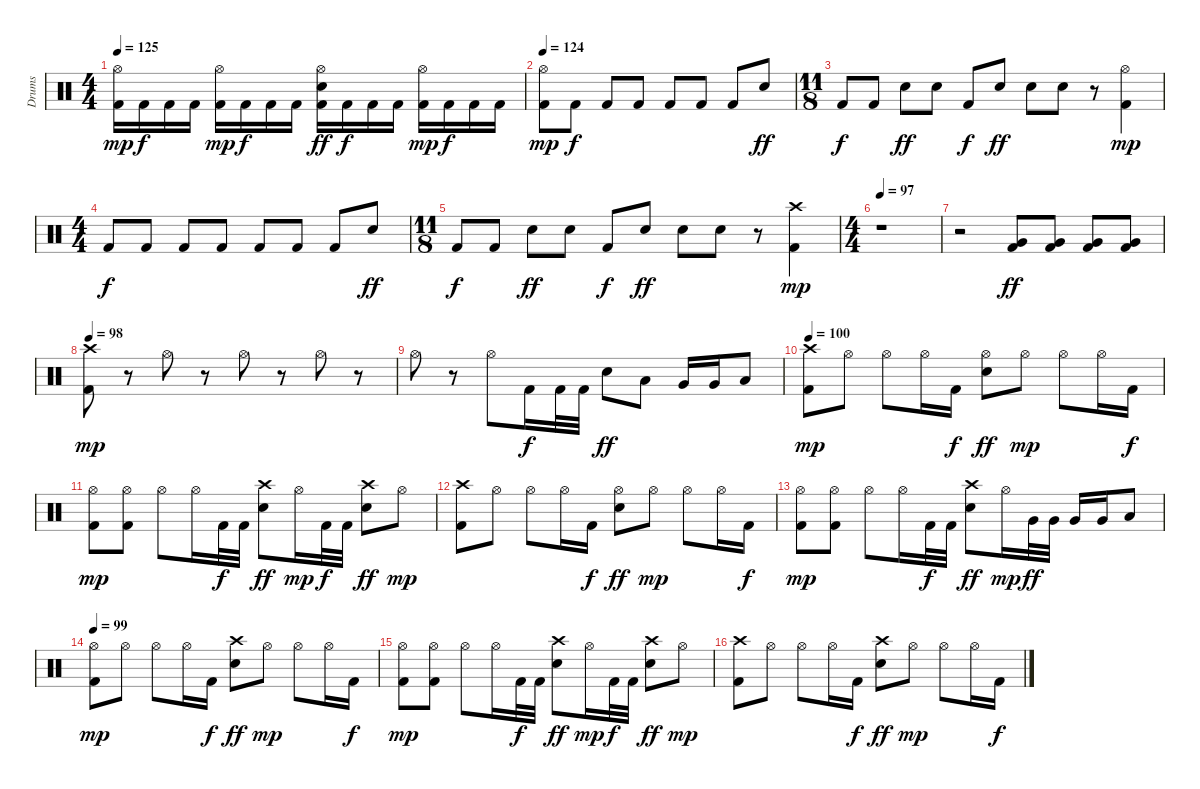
\track ("Drums" "Drums") {instrument percussion}
\staff {score}
\articulation defaults
\ts (4 4)
\tempo 125
\clef neutral
\ks c
("Hi-Hat (open)" "Kick (hit) 2").16{dy mp} "Kick (hit) 2".16{dy f} "Kick (hit) 2".16 "Kick (hit) 2".16 ("Hi-Hat (open)" "Kick (hit) 2").16{dy mp} "Kick (hit) 2".16{dy f} "Kick (hit) 2".16 "Kick (hit) 2".16 ("Hi-Hat (open)" "Electric Snare (hit)" "Kick (hit) 2").16{dy ff} "Kick (hit) 2".16{dy f} "Kick (hit) 2".16 "Kick (hit) 2".16 ("Hi-Hat (open)" "Kick (hit) 2").16{dy mp} "Kick (hit) 2".16{dy f} "Kick (hit) 2".16 "Kick (hit) 2".16 |
\tempo 124
("Hi-Hat (open)" "Kick (hit) 2").8{dy mp} "Kick (hit) 2".8{dy f} "Kick (hit) 2".8 "Kick (hit) 2".8 "Kick (hit) 2".8 "Kick (hit) 2".8 "Kick (hit) 2".8 "Electric Snare (hit)".8{dy ff} |
\ts (11 8)
"Kick (hit) 2".8{dy f} "Kick (hit) 2".8 "Electric Snare (hit)".8{dy ff} "Electric Snare (hit)".8 "Kick (hit) 2".8{dy f} "Electric Snare (hit)".8{dy ff} "Electric Snare (hit)".8 "Electric Snare (hit)".8 r.8 ("Hi-Hat (open)" "Kick (hit) 2").4{dy mp} |
\ts (4 4)
"Kick (hit) 2".8{dy f} "Kick (hit) 2".8 "Kick (hit) 2".8 "Kick (hit) 2".8 "Kick (hit) 2".8 "Kick (hit) 2".8 "Kick (hit) 2".8 "Electric Snare (hit)".8{dy ff} |
\ts (11 8)
"Kick (hit) 2".8{dy f} "Kick (hit) 2".8 "Electric Snare (hit)".8{dy ff} "Electric Snare (hit)".8 "Kick (hit) 2".8{dy f} "Electric Snare (hit)".8{dy ff} "Electric Snare (hit)".8 "Electric Snare (hit)".8 r.8 ("Crash high (hit)" "Kick (hit) 2").4{dy mp} |
\ts (4 4)
\tempo 97
r.1 |
r.2 ("Very Low Tom (hit)" "Kick (hit) 2").8{dy ff} ("Very Low Tom (hit)" "Kick (hit) 2").8 ("Very Low Tom (hit)" "Kick (hit) 2").8 ("Very Low Tom (hit)" "Kick (hit) 2").8 |
\tempo 98
("Crash high (hit)" "Kick (hit) 2").8{dy mp} r.8 "Hi-Hat (open)".8 r.8 "Hi-Hat (open)".8 r.8 "Hi-Hat (open)".8 r.8 |
"Hi-Hat (open)".8 r.8 "Hi-Hat (open)".8 "Kick (hit) 2".16{dy f} "Kick (hit) 2".32 "Kick (hit) 2".32 "Electric Snare (hit)".8{dy ff} "Low Tom (hit)".8 "Very Low Tom (hit)".16 "Very Low Tom (hit)".16 "Low Floor Tom (hit)".8 |
\tempo 100
("Crash high (hit)" "Kick (hit) 2").8{dy mp} "Hi-Hat (open)".8 "Hi-Hat (open)".8 "Hi-Hat (open)".16 "Kick (hit) 2".16{dy f} ("Hi-Hat (open)" "Electric Snare (hit)").8{dy ff} "Hi-Hat (open)".8{dy mp} "Hi-Hat (open)".8 "Hi-Hat (open)".16 "Kick (hit) 2".16{dy f} |
("Hi-Hat (open)" "Kick (hit) 2").8{dy mp} ("Hi-Hat (open)" "Kick (hit) 2").8 "Hi-Hat (open)".8 "Hi-Hat (open)".16 "Kick (hit) 2".32{dy f} "Kick (hit) 2".32 ("Crash high (hit)" "Electric Snare (hit)").8{dy ff} "Hi-Hat (open)".16{dy mp} "Kick (hit) 2".32{dy f} "Kick (hit) 2".32 ("Crash high (hit)" "Electric Snare (hit)").8{dy ff} "Hi-Hat (open)".8{dy mp} |
("Crash high (hit)" "Kick (hit) 2").8 "Hi-Hat (open)".8 "Hi-Hat (open)".8 "Hi-Hat (open)".16 "Kick (hit) 2".16{dy f} ("Hi-Hat (open)" "Electric Snare (hit)").8{dy ff} "Hi-Hat (open)".8{dy mp} "Hi-Hat (open)".8 "Hi-Hat (open)".16 "Kick (hit) 2".16{dy f} |
("Hi-Hat (open)" "Kick (hit) 2").8{dy mp} ("Hi-Hat (open)" "Kick (hit) 2").8 "Hi-Hat (open)".8 "Hi-Hat (open)".16 "Kick (hit) 2".32{dy f} "Kick (hit) 2".32 ("Crash high (hit)" "Electric Snare (hit)").8{dy ff} "Hi-Hat (open)".16{dy mp} "Very Low Tom (hit)".32{dy ff} "Very Low Tom (hit)".32 "Very Low Tom (hit)".16 "Very Low Tom (hit)".16 "Low Floor Tom (hit)".8 |
\tempo 99
("Hi-Hat (open)" "Kick (hit) 2").8{dy mp} "Hi-Hat (open)".8 "Hi-Hat (open)".8 "Hi-Hat (open)".16 "Kick (hit) 2".16{dy f} ("Crash high (hit)" "Electric Snare (hit)").8{dy ff} "Hi-Hat (open)".8{dy mp} "Hi-Hat (open)".8 "Hi-Hat (open)".16 "Kick (hit) 2".16{dy f} |
("Hi-Hat (open)" "Kick (hit) 2").8{dy mp} ("Hi-Hat (open)" "Kick (hit) 2").8 "Hi-Hat (open)".8 "Hi-Hat (open)".16 "Kick (hit) 2".32{dy f} "Kick (hit) 2".32 ("Crash high (hit)" "Electric Snare (hit)").8{dy ff} "Hi-Hat (open)".16{dy mp} "Kick (hit) 2".32{dy f} "Kick (hit) 2".32 ("Crash high (hit)" "Electric Snare (hit)").8{dy ff} "Hi-Hat (open)".8{dy mp} |
("Crash high (hit)" "Kick (hit) 2").8 "Hi-Hat (open)".8 "Hi-Hat (open)".8 "Hi-Hat (open)".16 "Kick (hit) 2".16{dy f} ("Crash high (hit)" "Electric Snare (hit)").8{dy ff} "Hi-Hat (open)".8{dy mp} "Hi-Hat (open)".8 "Hi-Hat (open)".16 "Kick (hit) 2".16{dy f}
